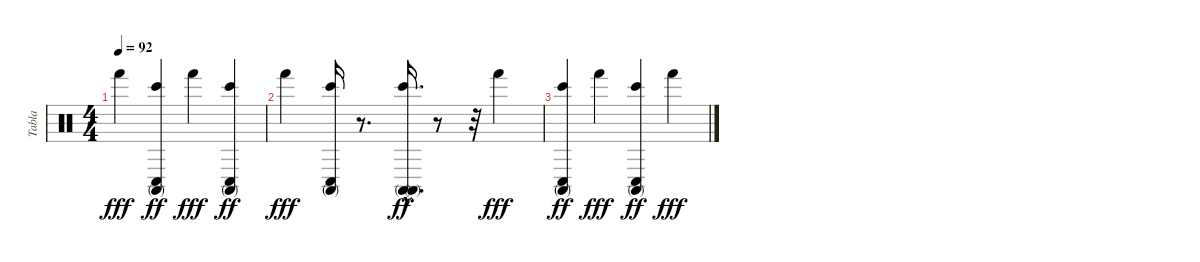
\track ("Tabla" "Tabla") {instrument percussion}
\staff {score}
\articulation defaults
\ts (4 4)
\tempo 92
\clef neutral
\ks c "Hand (hit)".4{dy fff}
("Conga low (hit)" "Conga high (mute)" "Bongo High (hit)").4{dy ff} "Hand (hit)".4{dy fff} ("Conga low (hit)" "Conga high (mute)" "Bongo High (hit)").4{dy ff} |
"Hand (hit)".4{dy fff} ("Conga high (mute)" "Bongo High (hit)" "Conga low (hit)").16 r.8{d} ("Conga high (mute)" "Conga high (mute)"{hac} "Bongo High (hit)").16{d dy ff} r.8 r.32 "Hand (hit)".4{dy fff} |
("Conga low (hit)" "Conga high (mute)" "Bongo High (hit)").4{dy ff} "Hand (hit)".4{dy fff} ("Conga low (hit)" "Conga high (mute)" "Bongo High (hit)").4{dy ff} "Hand (hit)".4{dy fff}
